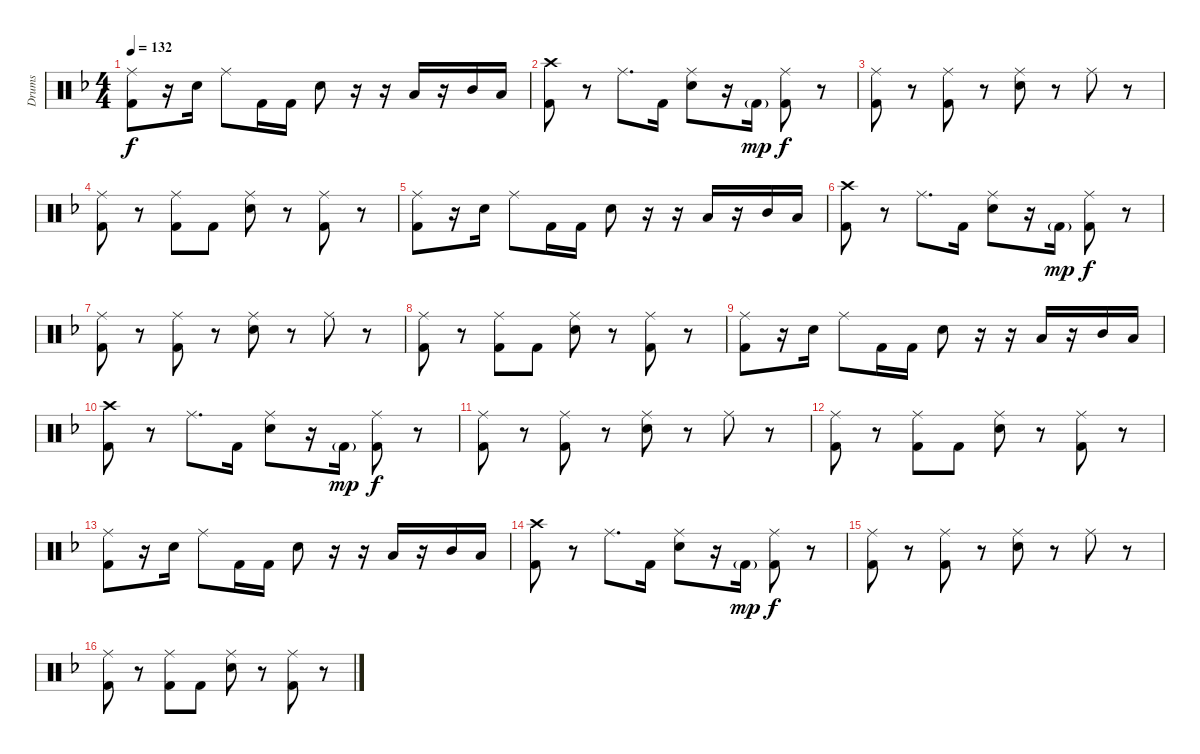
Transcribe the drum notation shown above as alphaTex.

\track ("Drums" "Drums") {instrument percussion}
\staff {score}
\articulation defaults
\ts (4 4)
\tempo 132
\clef neutral
\ks dminor
("Ride (middle)" "Kick (hit) 2").8{dy f} r.16 "Snare (hit) 2".16 "Ride (middle)".8 "Kick (hit) 2".16 "Kick (hit) 2".16 "Snare (hit) 2".8 r.16 r.16 "Low Tom (hit)".16 r.16 "Mid Tom (hit)".16 "Low Tom (hit)".16 |
("Crash high (hit)" "Kick (hit) 2").8 r.8 "Ride (middle)".8{d} "Kick (hit) 2".16 ("Ride (middle)" "Snare (hit) 2").8 r.16 "Kick (hit) 2"{g}.16{dy mp} ("Ride (middle)" "Kick (hit) 2").8{dy f} r.8 |
("Ride (middle)" "Kick (hit) 2").8 r.8 ("Ride (middle)" "Kick (hit) 2").8 r.8 ("Ride (middle)" "Snare (hit) 2").8 r.8 "Ride (middle)".8 r.8 |
("Ride (middle)" "Kick (hit) 2").8 r.8 ("Ride (middle)" "Kick (hit) 2").8 "Kick (hit) 2".8 ("Ride (middle)" "Snare (hit) 2").8 r.8 ("Ride (middle)" "Kick (hit) 2").8 r.8 |
("Ride (middle)" "Kick (hit) 2").8 r.16 "Snare (hit) 2".16 "Ride (middle)".8 "Kick (hit) 2".16 "Kick (hit) 2".16 "Snare (hit) 2".8 r.16 r.16 "Low Tom (hit)".16 r.16 "Mid Tom (hit)".16 "Low Tom (hit)".16 |
("Crash high (hit)" "Kick (hit) 2").8 r.8 "Ride (middle)".8{d} "Kick (hit) 2".16 ("Ride (middle)" "Snare (hit) 2").8 r.16 "Kick (hit) 2"{g}.16{dy mp} ("Ride (middle)" "Kick (hit) 2").8{dy f} r.8 |
("Ride (middle)" "Kick (hit) 2").8 r.8 ("Ride (middle)" "Kick (hit) 2").8 r.8 ("Ride (middle)" "Snare (hit) 2").8 r.8 "Ride (middle)".8 r.8 |
("Ride (middle)" "Kick (hit) 2").8 r.8 ("Ride (middle)" "Kick (hit) 2").8 "Kick (hit) 2".8 ("Ride (middle)" "Snare (hit) 2").8 r.8 ("Ride (middle)" "Kick (hit) 2").8 r.8 |
("Ride (middle)" "Kick (hit) 2").8 r.16 "Snare (hit) 2".16 "Ride (middle)".8 "Kick (hit) 2".16 "Kick (hit) 2".16 "Snare (hit) 2".8 r.16 r.16 "Low Tom (hit)".16 r.16 "Mid Tom (hit)".16 "Low Tom (hit)".16 |
("Crash high (hit)" "Kick (hit) 2").8 r.8 "Ride (middle)".8{d} "Kick (hit) 2".16 ("Ride (middle)" "Snare (hit) 2").8 r.16 "Kick (hit) 2"{g}.16{dy mp} ("Ride (middle)" "Kick (hit) 2").8{dy f} r.8 |
("Ride (middle)" "Kick (hit) 2").8 r.8 ("Ride (middle)" "Kick (hit) 2").8 r.8 ("Ride (middle)" "Snare (hit) 2").8 r.8 "Ride (middle)".8 r.8 |
("Ride (middle)" "Kick (hit) 2").8 r.8 ("Ride (middle)" "Kick (hit) 2").8 "Kick (hit) 2".8 ("Ride (middle)" "Snare (hit) 2").8 r.8 ("Ride (middle)" "Kick (hit) 2").8 r.8 |
("Ride (middle)" "Kick (hit) 2").8 r.16 "Snare (hit) 2".16 "Ride (middle)".8 "Kick (hit) 2".16 "Kick (hit) 2".16 "Snare (hit) 2".8 r.16 r.16 "Low Tom (hit)".16 r.16 "Mid Tom (hit)".16 "Low Tom (hit)".16 |
("Crash high (hit)" "Kick (hit) 2").8 r.8 "Ride (middle)".8{d} "Kick (hit) 2".16 ("Ride (middle)" "Snare (hit) 2").8 r.16 "Kick (hit) 2"{g}.16{dy mp} ("Ride (middle)" "Kick (hit) 2").8{dy f} r.8 |
("Ride (middle)" "Kick (hit) 2").8 r.8 ("Ride (middle)" "Kick (hit) 2").8 r.8 ("Ride (middle)" "Snare (hit) 2").8 r.8 "Ride (middle)".8 r.8 |
("Ride (middle)" "Kick (hit) 2").8 r.8 ("Ride (middle)" "Kick (hit) 2").8 "Kick (hit) 2".8 ("Ride (middle)" "Snare (hit) 2").8 r.8 ("Ride (middle)" "Kick (hit) 2").8 r.8
